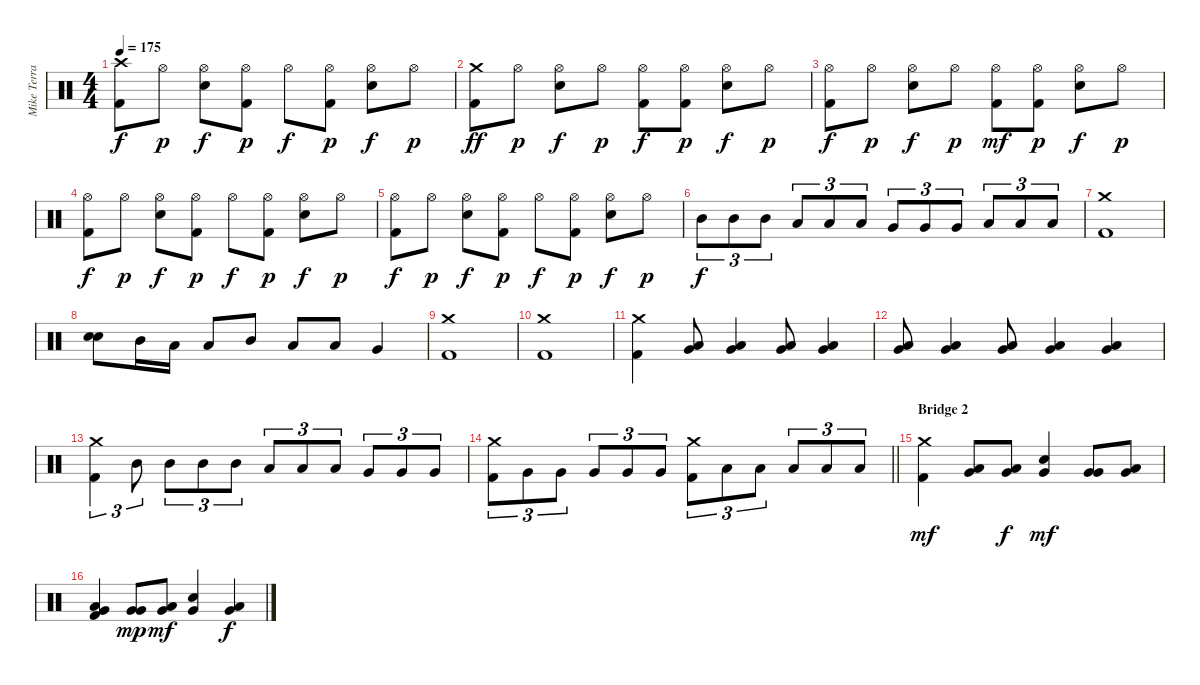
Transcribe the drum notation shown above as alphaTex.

\track ("Mike Terrana" "Mike Terra") {instrument percussion}
\staff {score}
\articulation defaults
\ts (4 4)
\tempo 175
\clef neutral
\ks c
("Crash high (hit)" "Kick (hit) 2").8{dy f} "Hi-Hat (open)".8{dy p} ("Hi-Hat (open)" "Snare (hit) 2").8{dy f} ("Hi-Hat (open)" "Kick (hit) 2").8{dy p} "Hi-Hat (open)".8{dy f} ("Hi-Hat (open)" "Kick (hit) 2").8{dy p} ("Hi-Hat (open)" "Snare (hit) 2").8{dy f} "Hi-Hat (open)".8{dy p} |
("Crash medium (hit)" "Kick (hit) 2").8{dy ff} "Hi-Hat (open)".8{dy p} ("Hi-Hat (open)" "Snare (hit) 2").8{dy f} "Hi-Hat (open)".8{dy p} ("Hi-Hat (open)" "Kick (hit) 2").8{dy f} ("Hi-Hat (open)" "Kick (hit) 2").8{dy p} ("Hi-Hat (open)" "Snare (hit) 2").8{dy f} "Hi-Hat (open)".8{dy p} |
("Hi-Hat (open)" "Kick (hit) 2").8{dy f} "Hi-Hat (open)".8{dy p} ("Hi-Hat (open)" "Snare (hit) 2").8{dy f} "Hi-Hat (open)".8{dy p} ("Hi-Hat (open)" "Kick (hit) 2").8{dy mf} ("Hi-Hat (open)" "Kick (hit) 2").8{dy p} ("Hi-Hat (open)" "Snare (hit) 2").8{dy f} "Hi-Hat (open)".8{dy p} |
("Hi-Hat (open)" "Kick (hit) 2").8{dy f} "Hi-Hat (open)".8{dy p} ("Hi-Hat (open)" "Snare (hit) 2").8{dy f} ("Hi-Hat (open)" "Kick (hit) 2").8{dy p} "Hi-Hat (open)".8{dy f} ("Hi-Hat (open)" "Kick (hit) 2").8{dy p} ("Hi-Hat (open)" "Snare (hit) 2").8{dy f} "Hi-Hat (open)".8{dy p} |
("Hi-Hat (open)" "Kick (hit) 2").8{dy f} "Hi-Hat (open)".8{dy p} ("Hi-Hat (open)" "Snare (hit) 2").8{dy f} ("Hi-Hat (open)" "Kick (hit) 2").8{dy p} "Hi-Hat (open)".8{dy f} ("Hi-Hat (open)" "Kick (hit) 2").8{dy p} ("Hi-Hat (open)" "Snare (hit) 2").8{dy f} "Hi-Hat (open)".8{dy p} |
"Mid Tom (hit)".8{tu (3 2) dy f} "Mid Tom (hit)".8{tu (3 2)} "Mid Tom (hit)".8{tu (3 2)} "Low Tom (hit)".8{tu (3 2)} "Low Tom (hit)".8{tu (3 2)} "Low Tom (hit)".8{tu (3 2)} "Very Low Tom (hit)".8{tu (3 2)} "Very Low Tom (hit)".8{tu (3 2)} "Very Low Tom (hit)".8{tu (3 2)} "Low Floor Tom (hit)".8{tu (3 2)} "Low Floor Tom (hit)".8{tu (3 2)} "Low Floor Tom (hit)".8{tu (3 2)} |
("Crash medium (hit)" "Kick (hit) 2").1 |
("Snare (hit) 2" "Electric Snare (hit)").8 "Mid Tom (hit)".16 "Low Tom (hit)".16 "Low Tom (hit)".8 "Mid Tom (hit)".8 "Low Tom (hit)".8 "Low Tom (hit)".8 "Very Low Tom (hit)".4 |
("Crash medium (hit)" "Kick (hit) 2").1 |
("Crash medium (hit)" "Kick (hit) 2").1 |
("Crash medium (hit)" "Kick (hit) 2").4 ("Low Tom (hit)" "Very Low Tom (hit)").8 ("Low Tom (hit)" "Very Low Tom (hit)").4 ("Low Tom (hit)" "Very Low Tom (hit)").8 ("Low Tom (hit)" "Very Low Tom (hit)").4 |
("Low Tom (hit)" "Very Low Tom (hit)").8 ("Low Tom (hit)" "Very Low Tom (hit)").4 ("Low Tom (hit)" "Very Low Tom (hit)").8 ("Low Tom (hit)" "Very Low Tom (hit)").4 ("Low Tom (hit)" "Very Low Tom (hit)").4 |
("Crash medium (hit)" "Kick (hit) 2").4{tu (3 2)} "Mid Tom (hit)".8{tu (3 2)} "Mid Tom (hit)".8{tu (3 2)} "Mid Tom (hit)".8{tu (3 2)} "Mid Tom (hit)".8{tu (3 2)} "Low Tom (hit)".8{tu (3 2)} "Low Tom (hit)".8{tu (3 2)} "Low Tom (hit)".8{tu (3 2)} "Very Low Tom (hit)".8{tu (3 2)} "Very Low Tom (hit)".8{tu (3 2)} "Very Low Tom (hit)".8{tu (3 2)} |
\barLineRight lightlight
("Crash medium (hit)" "Kick (hit) 2").8{tu (3 2)} "Very Low Tom (hit)".8{tu (3 2)} "Very Low Tom (hit)".8{tu (3 2)} "Very Low Tom (hit)".8{tu (3 2)} "Very Low Tom (hit)".8{tu (3 2)} "Very Low Tom (hit)".8{tu (3 2)} ("Crash medium (hit)" "Kick (hit) 2").8{tu (3 2)} "Low Floor Tom (hit)".8{tu (3 2)} "Low Floor Tom (hit)".8{tu (3 2)} "Low Floor Tom (hit)".8{tu (3 2)} "Low Floor Tom (hit)".8{tu (3 2)} "Low Floor Tom (hit)".8{tu (3 2)} |
\section ("" "Bridge 2")
("Crash medium (hit)" "Kick (hit) 2").4{dy mf} ("Low Tom (hit)" "Very Low Tom (hit)").8 ("Low Tom (hit)" "Very Low Tom (hit)").8{dy f} ("Snare (hit) 2" "Very Low Tom (hit)").4{dy mf} ("Very Low Tom (hit)" "Very Low Tom (hit)").8 ("Low Tom (hit)" "Very Low Tom (hit)").8 |
("Low Tom (hit)" "Very Low Tom (hit)" "Kick (hit) 2").4 ("Very Low Tom (hit)" "Very Low Tom (hit)").8{dy mp} ("Low Tom (hit)" "Very Low Tom (hit)").8{dy mf} ("Snare (hit) 2" "Very Low Tom (hit)").4 ("Low Tom (hit)" "Very Low Tom (hit)").4{dy f}
